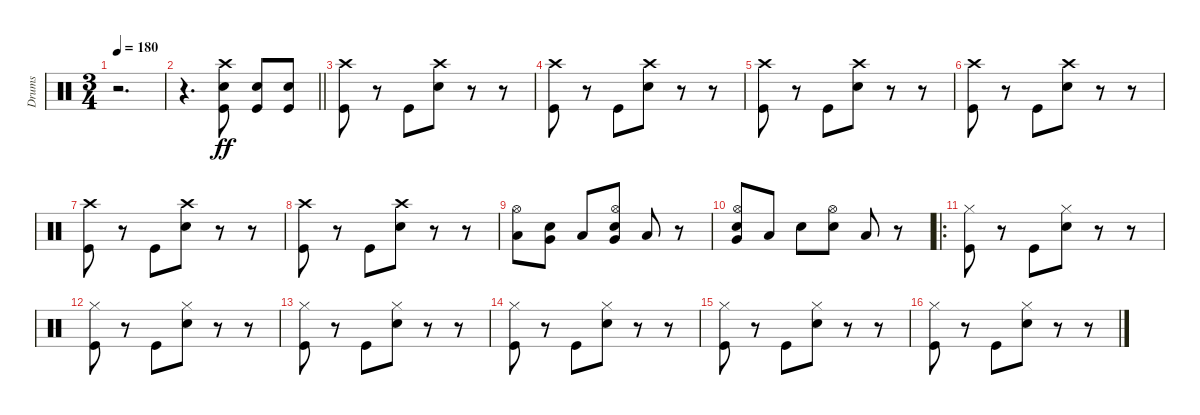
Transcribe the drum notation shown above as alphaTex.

\track ("Drums" "Drums") {instrument percussion}
\staff {score}
\articulation defaults
\ts (3 4)
\tempo 180
\clef neutral
\ks c
r.2{d dy ff} |
\barLineRight lightlight
r.4{d} ("Crash high (hit)" "Snare (hit) 2" "Kick (hit)").8 ("Snare (hit) 2" "Kick (hit)").8 ("Snare (hit) 2" "Kick (hit)").8 |
("Crash high (hit)" "Kick (hit)").8 r.8 "Kick (hit)".8 ("Crash high (hit)" "Snare (hit) 2").8 r.8 r.8 |
("Crash high (hit)" "Kick (hit)").8 r.8 "Kick (hit)".8 ("Crash high (hit)" "Snare (hit) 2").8 r.8 r.8 |
("Crash high (hit)" "Kick (hit)").8 r.8 "Kick (hit)".8 ("Crash high (hit)" "Snare (hit) 2").8 r.8 r.8 |
("Crash high (hit)" "Kick (hit)").8 r.8 "Kick (hit)".8 ("Crash high (hit)" "Snare (hit) 2").8 r.8 r.8 |
("Crash high (hit)" "Kick (hit)").8 r.8 "Kick (hit)".8 ("Crash high (hit)" "Snare (hit) 2").8 r.8 r.8 |
("Crash high (hit)" "Kick (hit)").8 r.8 "Kick (hit)".8 ("Crash high (hit)" "Snare (hit) 2").8 r.8 r.8 |
("Hi-Hat (open)" "Low Floor Tom (hit)").8 ("Snare (hit) 2" "Very Low Tom (hit)").8 "Low Floor Tom (hit)".8 ("Hi-Hat (open)" "Snare (hit) 2" "Very Low Tom (hit)").8 "Low Tom (hit)".8 r.8 |
("Hi-Hat (open)" "Snare (hit) 2" "Very Low Tom (hit)").8 "Low Tom (hit)".8 "Snare (hit) 2".8 ("Hi-Hat (open)" "Snare (hit) 2").8 "Low Floor Tom (hit)".8 r.8 |
\ro
("Hi-Hat (closed)" "Kick (hit)").8 r.8 "Kick (hit)".8 ("Hi-Hat (closed)" "Snare (hit) 2").8 r.8 r.8 |
("Hi-Hat (closed)" "Kick (hit)").8 r.8 "Kick (hit)".8 ("Hi-Hat (closed)" "Snare (hit) 2").8 r.8 r.8 |
("Hi-Hat (closed)" "Kick (hit)").8 r.8 "Kick (hit)".8 ("Hi-Hat (closed)" "Snare (hit) 2").8 r.8 r.8 |
("Hi-Hat (closed)" "Kick (hit)").8 r.8 "Kick (hit)".8 ("Hi-Hat (closed)" "Snare (hit) 2").8 r.8 r.8 |
("Hi-Hat (closed)" "Kick (hit)").8 r.8 "Kick (hit)".8 ("Hi-Hat (closed)" "Snare (hit) 2").8 r.8 r.8 |
("Hi-Hat (closed)" "Kick (hit)").8 r.8 "Kick (hit)".8 ("Hi-Hat (closed)" "Snare (hit) 2").8 r.8 r.8
